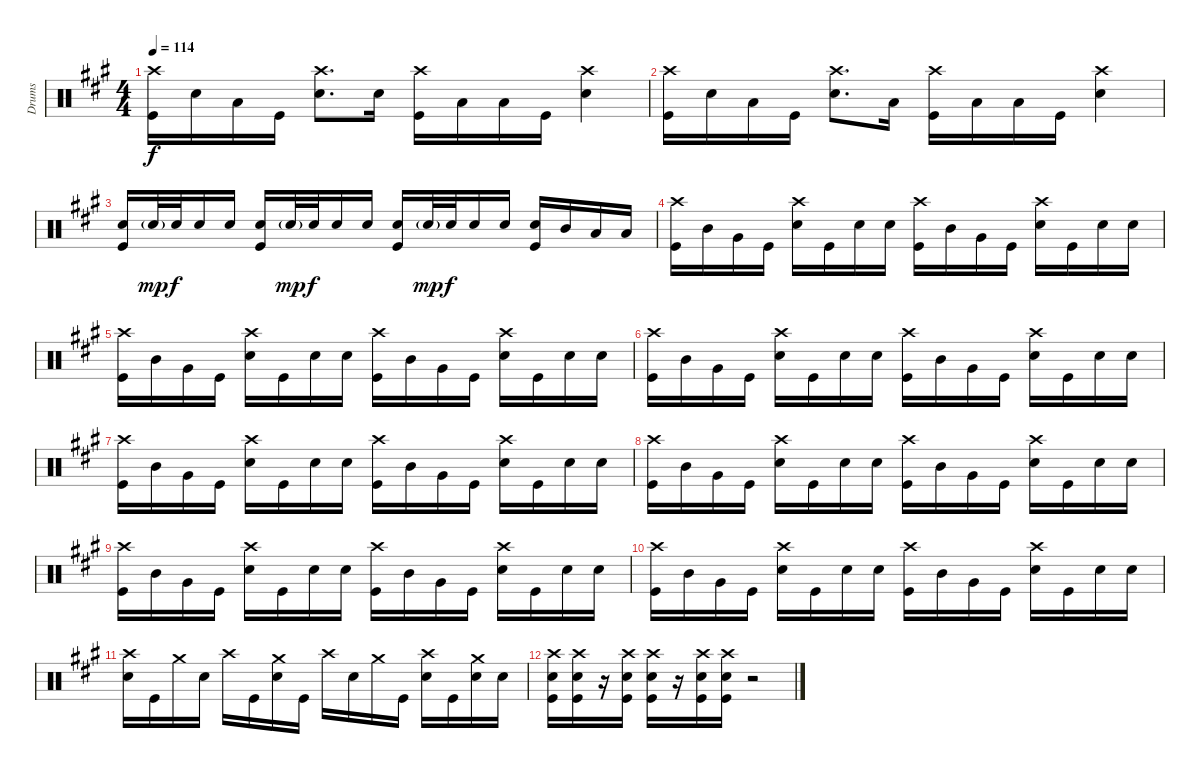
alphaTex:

\track ("Drums" "Drums") {instrument percussion}
\staff {score}
\articulation defaults
\ts (4 4)
\tempo 114
\clef neutral
\ks a
("Crash high (hit)" "Kick (hit)").16{dy f} "Electric Snare (hit)".16 "Low Tom (hit)".16 "Kick (hit)".16 ("Crash high (hit)" "Electric Snare (hit)").8{d} "Electric Snare (hit)".16 ("Crash high (hit)" "Kick (hit)").16 "Low Tom (hit)".16 "Low Tom (hit)".16 "Kick (hit)".16 ("Crash high (hit)" "Electric Snare (hit)").4 |
("Crash high (hit)" "Kick (hit)").16 "Electric Snare (hit)".16 "Low Tom (hit)".16 "Kick (hit)".16 ("Crash high (hit)" "Electric Snare (hit)").8{d} "Low Tom (hit)".16 ("Crash high (hit)" "Kick (hit)").16 "Low Tom (hit)".16 "Low Tom (hit)".16 "Kick (hit)".16 ("Crash high (hit)" "Electric Snare (hit)").4 |
("Electric Snare (hit)" "Kick (hit)").16 "Electric Snare (hit)"{g}.32{dy mp} "Electric Snare (hit)".32{dy f} "Electric Snare (hit)".16 "Electric Snare (hit)".16 ("Electric Snare (hit)" "Kick (hit)").16 "Electric Snare (hit)"{g}.32{dy mp} "Electric Snare (hit)".32{dy f} "Electric Snare (hit)".16 "Electric Snare (hit)".16 ("Electric Snare (hit)" "Kick (hit)").16 "Electric Snare (hit)"{g}.32{dy mp} "Electric Snare (hit)".32{dy f} "Electric Snare (hit)".16 "Electric Snare (hit)".16 ("Electric Snare (hit)" "Kick (hit)").16 "Mid Tom (hit)".16 "Low Tom (hit)".16 "Low Tom (hit)".16 |
("Crash high (hit)" "Kick (hit)").16 "Mid Tom (hit)".16 "Very Low Tom (hit)".16 "Kick (hit)".16 ("Crash high (hit)" "Electric Snare (hit)").16 "Kick (hit)".16 "Electric Snare (hit)".16 "Electric Snare (hit)".16 ("Crash high (hit)" "Kick (hit)").16 "Mid Tom (hit)".16 "Very Low Tom (hit)".16 "Kick (hit)".16 ("Crash high (hit)" "Electric Snare (hit)").16 "Kick (hit)".16 "Electric Snare (hit)".16 "Electric Snare (hit)".16 |
("Crash high (hit)" "Kick (hit)").16 "Mid Tom (hit)".16 "Very Low Tom (hit)".16 "Kick (hit)".16 ("Crash high (hit)" "Electric Snare (hit)").16 "Kick (hit)".16 "Electric Snare (hit)".16 "Electric Snare (hit)".16 ("Crash high (hit)" "Kick (hit)").16 "Mid Tom (hit)".16 "Very Low Tom (hit)".16 "Kick (hit)".16 ("Crash high (hit)" "Electric Snare (hit)").16 "Kick (hit)".16 "Electric Snare (hit)".16 "Electric Snare (hit)".16 |
("Crash high (hit)" "Kick (hit)").16 "Mid Tom (hit)".16 "Very Low Tom (hit)".16 "Kick (hit)".16 ("Crash high (hit)" "Electric Snare (hit)").16 "Kick (hit)".16 "Electric Snare (hit)".16 "Electric Snare (hit)".16 ("Crash high (hit)" "Kick (hit)").16 "Mid Tom (hit)".16 "Very Low Tom (hit)".16 "Kick (hit)".16 ("Crash high (hit)" "Electric Snare (hit)").16 "Kick (hit)".16 "Electric Snare (hit)".16 "Electric Snare (hit)".16 |
("Crash high (hit)" "Kick (hit)").16 "Mid Tom (hit)".16 "Very Low Tom (hit)".16 "Kick (hit)".16 ("Crash high (hit)" "Electric Snare (hit)").16 "Kick (hit)".16 "Electric Snare (hit)".16 "Electric Snare (hit)".16 ("Crash high (hit)" "Kick (hit)").16 "Mid Tom (hit)".16 "Very Low Tom (hit)".16 "Kick (hit)".16 ("Crash high (hit)" "Electric Snare (hit)").16 "Kick (hit)".16 "Electric Snare (hit)".16 "Electric Snare (hit)".16 |
("Crash high (hit)" "Kick (hit)").16 "Mid Tom (hit)".16 "Very Low Tom (hit)".16 "Kick (hit)".16 ("Crash high (hit)" "Electric Snare (hit)").16 "Kick (hit)".16 "Electric Snare (hit)".16 "Electric Snare (hit)".16 ("Crash high (hit)" "Kick (hit)").16 "Mid Tom (hit)".16 "Very Low Tom (hit)".16 "Kick (hit)".16 ("Crash high (hit)" "Electric Snare (hit)").16 "Kick (hit)".16 "Electric Snare (hit)".16 "Electric Snare (hit)".16 |
("Crash high (hit)" "Kick (hit)").16 "Mid Tom (hit)".16 "Very Low Tom (hit)".16 "Kick (hit)".16 ("Crash high (hit)" "Electric Snare (hit)").16 "Kick (hit)".16 "Electric Snare (hit)".16 "Electric Snare (hit)".16 ("Crash high (hit)" "Kick (hit)").16 "Mid Tom (hit)".16 "Very Low Tom (hit)".16 "Kick (hit)".16 ("Crash high (hit)" "Electric Snare (hit)").16 "Kick (hit)".16 "Electric Snare (hit)".16 "Electric Snare (hit)".16 |
("Crash high (hit)" "Kick (hit)").16 "Mid Tom (hit)".16 "Very Low Tom (hit)".16 "Kick (hit)".16 ("Crash high (hit)" "Electric Snare (hit)").16 "Kick (hit)".16 "Electric Snare (hit)".16 "Electric Snare (hit)".16 ("Crash high (hit)" "Kick (hit)").16 "Mid Tom (hit)".16 "Very Low Tom (hit)".16 "Kick (hit)".16 ("Crash high (hit)" "Electric Snare (hit)").16 "Kick (hit)".16 "Electric Snare (hit)".16 "Electric Snare (hit)".16 |
("Crash high (hit)" "Electric Snare (hit)").16 "Kick (hit)".16 "Crash medium (hit)".16 "Electric Snare (hit)".16 "Crash high (hit)".16 "Kick (hit)".16 ("Crash medium (hit)" "Electric Snare (hit)").16 "Kick (hit)".16 "Crash high (hit)".16 "Electric Snare (hit)".16 "Crash medium (hit)".16 "Kick (hit)".16 ("Crash high (hit)" "Electric Snare (hit)").16 "Kick (hit)".16 ("Crash medium (hit)" "Electric Snare (hit)").16 "Electric Snare (hit)".16 |
("Crash high (hit)" "Electric Snare (hit)" "Kick (hit)").16 ("Crash high (hit)" "Electric Snare (hit)" "Kick (hit)").16 r.16 ("Crash high (hit)" "Electric Snare (hit)" "Kick (hit)").16 ("Crash high (hit)" "Electric Snare (hit)" "Kick (hit)").16 r.16 ("Crash high (hit)" "Electric Snare (hit)" "Kick (hit)").16 ("Crash high (hit)" "Electric Snare (hit)" "Kick (hit)").16 r.2
